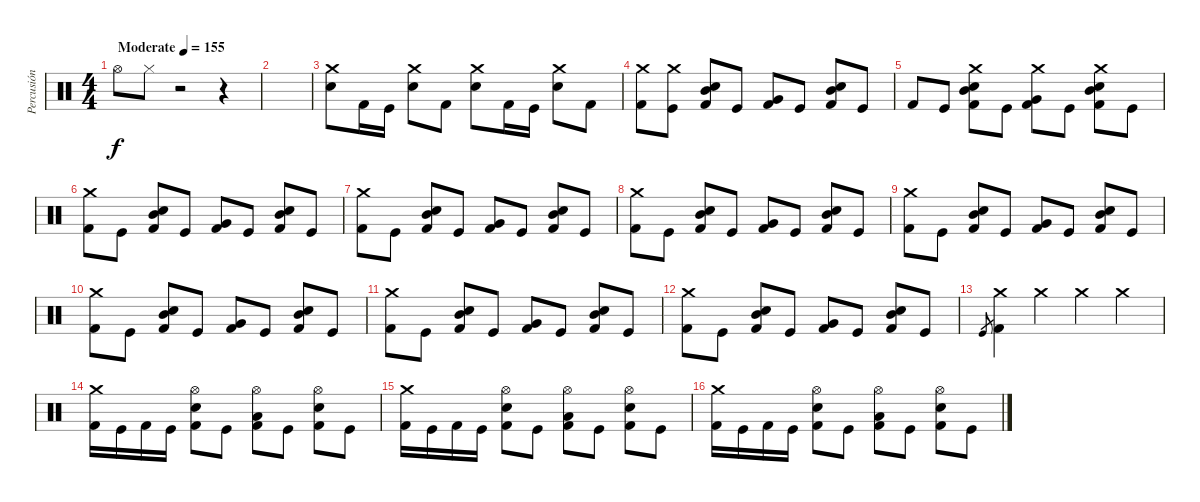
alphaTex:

\track ("Percusión" "Percusión") {instrument percussion}
\staff {score}
\articulation defaults
\ts (4 4)
\tempo (155 "Moderate")
\clef neutral
\ks c "Hi-Hat (open)".8{dy f} "Hi-Hat (closed)".8
r.2 r.4 |
|
("Crash medium (hit)" "Electric Snare (hit)").8 "Kick (hit) 2".16 "Kick (hit)".16 ("Crash medium (hit)" "Electric Snare (hit)").8 "Kick (hit) 2".8 ("Crash medium (hit)" "Electric Snare (hit)").8 "Kick (hit) 2".16 "Kick (hit)".16 ("Crash medium (hit)" "Electric Snare (hit)").8 "Kick (hit) 2".8 |
("Crash medium (hit)" "Kick (hit) 2").8 ("Crash medium (hit)" "Kick (hit)").8 ("Mid Tom (hit)" "Electric Snare (hit)" "Kick (hit) 2").8 "Kick (hit)".8 ("Very Low Tom (hit)" "Kick (hit) 2").8 "Kick (hit)".8 ("Mid Tom (hit)" "Electric Snare (hit)" "Kick (hit) 2").8 "Kick (hit)".8 |
"Kick (hit) 2".8 "Kick (hit)".8 ("Crash medium (hit)" "Mid Tom (hit)" "Electric Snare (hit)" "Kick (hit) 2").8 "Kick (hit)".8 ("Crash medium (hit)" "Very Low Tom (hit)" "Kick (hit) 2").8 "Kick (hit)".8 ("Crash medium (hit)" "Mid Tom (hit)" "Electric Snare (hit)" "Kick (hit) 2").8 "Kick (hit)".8 |
("Crash medium (hit)" "Kick (hit) 2").8 "Kick (hit)".8 ("Mid Tom (hit)" "Electric Snare (hit)" "Kick (hit) 2").8 "Kick (hit)".8 ("Very Low Tom (hit)" "Kick (hit) 2").8 "Kick (hit)".8 ("Mid Tom (hit)" "Electric Snare (hit)" "Kick (hit) 2").8 "Kick (hit)".8 |
("Crash medium (hit)" "Kick (hit) 2").8 "Kick (hit)".8 ("Mid Tom (hit)" "Electric Snare (hit)" "Kick (hit) 2").8 "Kick (hit)".8 ("Very Low Tom (hit)" "Kick (hit) 2").8 "Kick (hit)".8 ("Mid Tom (hit)" "Electric Snare (hit)" "Kick (hit) 2").8 "Kick (hit)".8 |
("Crash medium (hit)" "Kick (hit) 2").8 "Kick (hit)".8 ("Mid Tom (hit)" "Electric Snare (hit)" "Kick (hit) 2").8 "Kick (hit)".8 ("Very Low Tom (hit)" "Kick (hit) 2").8 "Kick (hit)".8 ("Mid Tom (hit)" "Electric Snare (hit)" "Kick (hit) 2").8 "Kick (hit)".8 |
("Crash medium (hit)" "Kick (hit) 2").8 "Kick (hit)".8 ("Mid Tom (hit)" "Electric Snare (hit)" "Kick (hit) 2").8 "Kick (hit)".8 ("Very Low Tom (hit)" "Kick (hit) 2").8 "Kick (hit)".8 ("Mid Tom (hit)" "Electric Snare (hit)" "Kick (hit) 2").8 "Kick (hit)".8 |
("Crash medium (hit)" "Kick (hit) 2").8 "Kick (hit)".8 ("Mid Tom (hit)" "Electric Snare (hit)" "Kick (hit) 2").8 "Kick (hit)".8 ("Very Low Tom (hit)" "Kick (hit) 2").8 "Kick (hit)".8 ("Mid Tom (hit)" "Electric Snare (hit)" "Kick (hit) 2").8 "Kick (hit)".8 |
("Crash medium (hit)" "Kick (hit) 2").8 "Kick (hit)".8 ("Mid Tom (hit)" "Electric Snare (hit)" "Kick (hit) 2").8 "Kick (hit)".8 ("Very Low Tom (hit)" "Kick (hit) 2").8 "Kick (hit)".8 ("Mid Tom (hit)" "Electric Snare (hit)" "Kick (hit) 2").8 "Kick (hit)".8 |
("Crash medium (hit)" "Kick (hit) 2").8 "Kick (hit)".8 ("Mid Tom (hit)" "Electric Snare (hit)" "Kick (hit) 2").8 "Kick (hit)".8 ("Very Low Tom (hit)" "Kick (hit) 2").8 "Kick (hit)".8 ("Mid Tom (hit)" "Electric Snare (hit)" "Kick (hit) 2").8 "Kick (hit)".8 |
"Kick (hit)".8{gr} ("Crash medium (hit)" "Kick (hit) 2").4 "Crash medium (hit)".4 "Crash medium (hit)".4 "Crash medium (hit)".4 |
("Crash medium (hit)" "Kick (hit) 2").16 "Kick (hit)".16 "Kick (hit) 2".16 "Kick (hit)".16 ("Hi-Hat (open)" "Electric Snare (hit)" "Kick (hit) 2").8 "Kick (hit)".8 ("Hi-Hat (open)" "Low Floor Tom (hit)" "Kick (hit) 2").8 "Kick (hit)".8 ("Hi-Hat (open)" "Electric Snare (hit)" "Kick (hit) 2").8 "Kick (hit)".8 |
("Crash medium (hit)" "Kick (hit) 2").16 "Kick (hit)".16 "Kick (hit) 2".16 "Kick (hit)".16 ("Hi-Hat (open)" "Electric Snare (hit)" "Kick (hit) 2").8 "Kick (hit)".8 ("Hi-Hat (open)" "Low Floor Tom (hit)" "Kick (hit) 2").8 "Kick (hit)".8 ("Hi-Hat (open)" "Electric Snare (hit)" "Kick (hit) 2").8 "Kick (hit)".8 |
("Crash medium (hit)" "Kick (hit) 2").16 "Kick (hit)".16 "Kick (hit) 2".16 "Kick (hit)".16 ("Hi-Hat (open)" "Electric Snare (hit)" "Kick (hit) 2").8 "Kick (hit)".8 ("Hi-Hat (open)" "Low Floor Tom (hit)" "Kick (hit) 2").8 "Kick (hit)".8 ("Hi-Hat (open)" "Electric Snare (hit)" "Kick (hit) 2").8 "Kick (hit)".8
